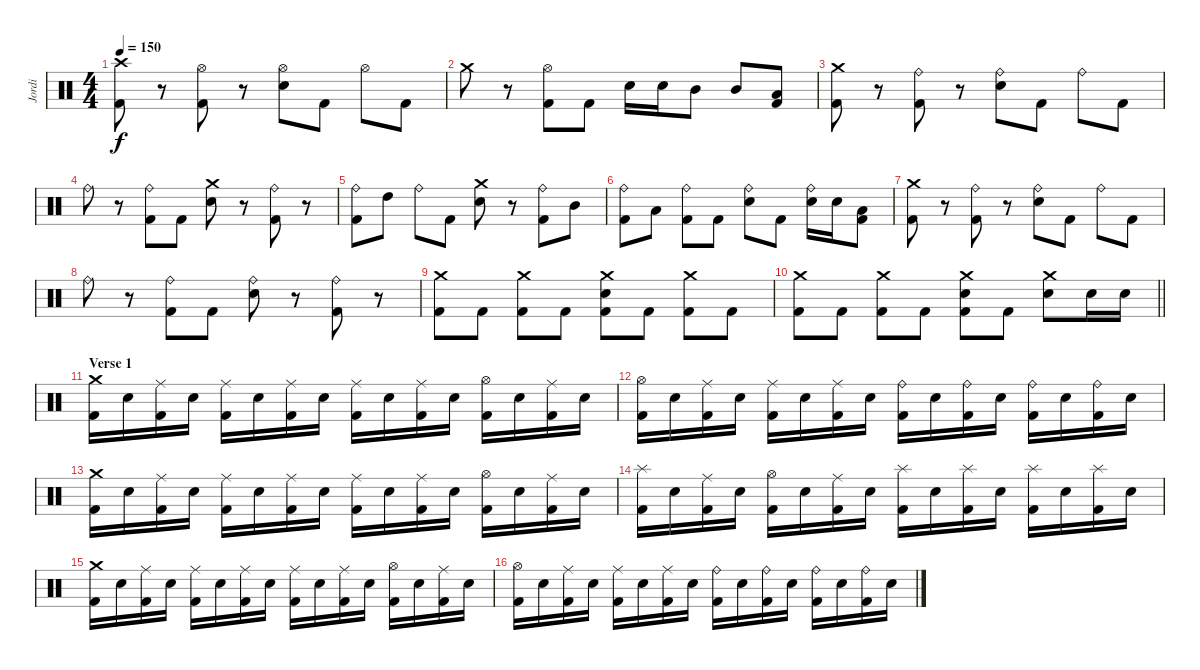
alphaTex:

\track ("Jordi" "Jordi") {instrument percussion}
\staff {score}
\articulation defaults
\ts (4 4)
\tempo 150
\clef neutral
\ks c
("Crash high (hit)" "Kick (hit) 2").8{dy f} r.8 ("Hi-Hat (open)" "Kick (hit) 2").8 r.8 ("Hi-Hat (open)" "Snare (hit) 2").8 "Kick (hit) 2".8 "Hi-Hat (open)".8 "Kick (hit) 2".8 |
"Crash medium (hit)".8 r.8 ("Hi-Hat (open)" "Kick (hit) 2").8 "Kick (hit) 2".8 "Snare (hit) 2".16 "Snare (hit) 2".16 "Mid Tom (hit)".8 "Mid Tom (hit)".8 ("Low Tom (hit)" "Kick (hit) 2").8 |
("Crash medium (hit)" "Kick (hit) 2").8 r.8 ("Ride (bell)" "Kick (hit) 2").8 r.8 ("Ride (bell)" "Snare (hit) 2").8 "Kick (hit) 2".8 "Ride (bell)".8 "Kick (hit) 2".8 |
"Ride (bell)".8 r.8 ("Ride (bell)" "Kick (hit) 2").8 "Kick (hit) 2".8 ("Crash medium (hit)" "Snare (hit) 2").8 r.8 ("Ride (bell)" "Kick (hit) 2").8 r.8 |
("Ride (bell)" "Kick (hit) 2").8 "High Tom (hit)".8 "Ride (bell)".8 "Kick (hit) 2".8 ("Crash medium (hit)" "Snare (hit) 2").8 r.8 ("Ride (bell)" "Kick (hit) 2").8 "Mid Tom (hit)".8 |
("Ride (bell)" "Kick (hit) 2").8 "Low Tom (hit)".8 ("Ride (bell)" "Kick (hit) 2").8 "Kick (hit) 2".8 ("Ride (bell)" "Snare (hit) 2").8 "Kick (hit) 2".8 ("Ride (bell)" "Snare (hit) 2").16 "Snare (hit) 2".16 ("Low Tom (hit)" "Kick (hit) 2").8 |
("Crash medium (hit)" "Kick (hit) 2").8 r.8 ("Ride (bell)" "Kick (hit) 2").8 r.8 ("Ride (bell)" "Snare (hit) 2").8 "Kick (hit) 2".8 "Ride (bell)".8 "Kick (hit) 2".8 |
"Ride (bell)".8 r.8 ("Ride (bell)" "Kick (hit) 2").8 "Kick (hit) 2".8 ("Ride (bell)" "Snare (hit) 2").8 r.8 ("Ride (bell)" "Kick (hit) 2").8 r.8 |
("Crash medium (hit)" "Kick (hit) 2").8 "Kick (hit) 2".8 ("Crash medium (hit)" "Kick (hit) 2").8 "Kick (hit) 2".8 ("Crash medium (hit)" "Snare (hit) 2" "Kick (hit) 2").8 "Kick (hit) 2".8 ("Crash medium (hit)" "Kick (hit) 2").8 "Kick (hit) 2".8 |
\barLineRight lightlight
("Crash medium (hit)" "Kick (hit) 2").8 "Kick (hit) 2".8 ("Crash medium (hit)" "Kick (hit) 2").8 "Kick (hit) 2".8 ("Crash medium (hit)" "Snare (hit) 2" "Kick (hit) 2").8 "Kick (hit) 2".8 ("Crash medium (hit)" "Snare (hit) 2").8 "Snare (hit) 2".16 "Snare (hit) 2".16 |
\section ("" "Verse 1")
("Crash medium (hit)" "Kick (hit) 2").16 "Snare (hit) 2".16 ("Ride (middle)" "Kick (hit) 2").16 "Snare (hit) 2".16 ("Ride (middle)" "Kick (hit) 2").16 "Snare (hit) 2".16 ("Ride (middle)" "Kick (hit) 2").16 "Snare (hit) 2".16 ("Ride (middle)" "Kick (hit) 2").16 "Snare (hit) 2".16 ("Ride (middle)" "Kick (hit) 2").16 "Snare (hit) 2".16 ("Hi-Hat (open)" "Kick (hit) 2").16 "Snare (hit) 2".16 ("Ride (middle)" "Kick (hit) 2").16 "Snare (hit) 2".16 |
("Hi-Hat (open)" "Kick (hit) 2").16 "Snare (hit) 2".16 ("Ride (middle)" "Kick (hit) 2").16 "Snare (hit) 2".16 ("Ride (middle)" "Kick (hit) 2").16 "Snare (hit) 2".16 ("Ride (middle)" "Kick (hit) 2").16 "Snare (hit) 2".16 ("Ride (bell)" "Kick (hit) 2").16 "Snare (hit) 2".16 ("Ride (bell)" "Kick (hit) 2").16 "Snare (hit) 2".16 ("Ride (bell)" "Kick (hit) 2").16 "Snare (hit) 2".16 ("Ride (bell)" "Kick (hit) 2").16 "Snare (hit) 2".16 |
("Crash medium (hit)" "Kick (hit) 2").16 "Snare (hit) 2".16 ("Ride (middle)" "Kick (hit) 2").16 "Snare (hit) 2".16 ("Ride (middle)" "Kick (hit) 2").16 "Snare (hit) 2".16 ("Ride (middle)" "Kick (hit) 2").16 "Snare (hit) 2".16 ("Ride (middle)" "Kick (hit) 2").16 "Snare (hit) 2".16 ("Ride (middle)" "Kick (hit) 2").16 "Snare (hit) 2".16 ("Hi-Hat (open)" "Kick (hit) 2").16 "Snare (hit) 2".16 ("Ride (middle)" "Kick (hit) 2").16 "Snare (hit) 2".16 |
("Splash (hit)" "Kick (hit) 2").16 "Snare (hit) 2".16 ("Ride (middle)" "Kick (hit) 2").16 "Snare (hit) 2".16 ("Hi-Hat (open)" "Kick (hit) 2").16 "Snare (hit) 2".16 ("Ride (middle)" "Kick (hit) 2").16 "Snare (hit) 2".16 ("Splash (hit)" "Kick (hit) 2").16 "Snare (hit) 2".16 ("Splash (hit)" "Kick (hit) 2").16 "Snare (hit) 2".16 ("Splash (hit)" "Kick (hit) 2").16 "Snare (hit) 2".16 ("Splash (hit)" "Kick (hit) 2").16 "Snare (hit) 2".16 |
("Crash medium (hit)" "Kick (hit) 2").16 "Snare (hit) 2".16 ("Ride (middle)" "Kick (hit) 2").16 "Snare (hit) 2".16 ("Ride (middle)" "Kick (hit) 2").16 "Snare (hit) 2".16 ("Ride (middle)" "Kick (hit) 2").16 "Snare (hit) 2".16 ("Ride (middle)" "Kick (hit) 2").16 "Snare (hit) 2".16 ("Ride (middle)" "Kick (hit) 2").16 "Snare (hit) 2".16 ("Hi-Hat (open)" "Kick (hit) 2").16 "Snare (hit) 2".16 ("Ride (middle)" "Kick (hit) 2").16 "Snare (hit) 2".16 |
("Hi-Hat (open)" "Kick (hit) 2").16 "Snare (hit) 2".16 ("Ride (middle)" "Kick (hit) 2").16 "Snare (hit) 2".16 ("Ride (middle)" "Kick (hit) 2").16 "Snare (hit) 2".16 ("Ride (middle)" "Kick (hit) 2").16 "Snare (hit) 2".16 ("Ride (bell)" "Kick (hit) 2").16 "Snare (hit) 2".16 ("Ride (bell)" "Kick (hit) 2").16 "Snare (hit) 2".16 ("Ride (bell)" "Kick (hit) 2").16 "Snare (hit) 2".16 ("Ride (bell)" "Kick (hit) 2").16 "Snare (hit) 2".16
